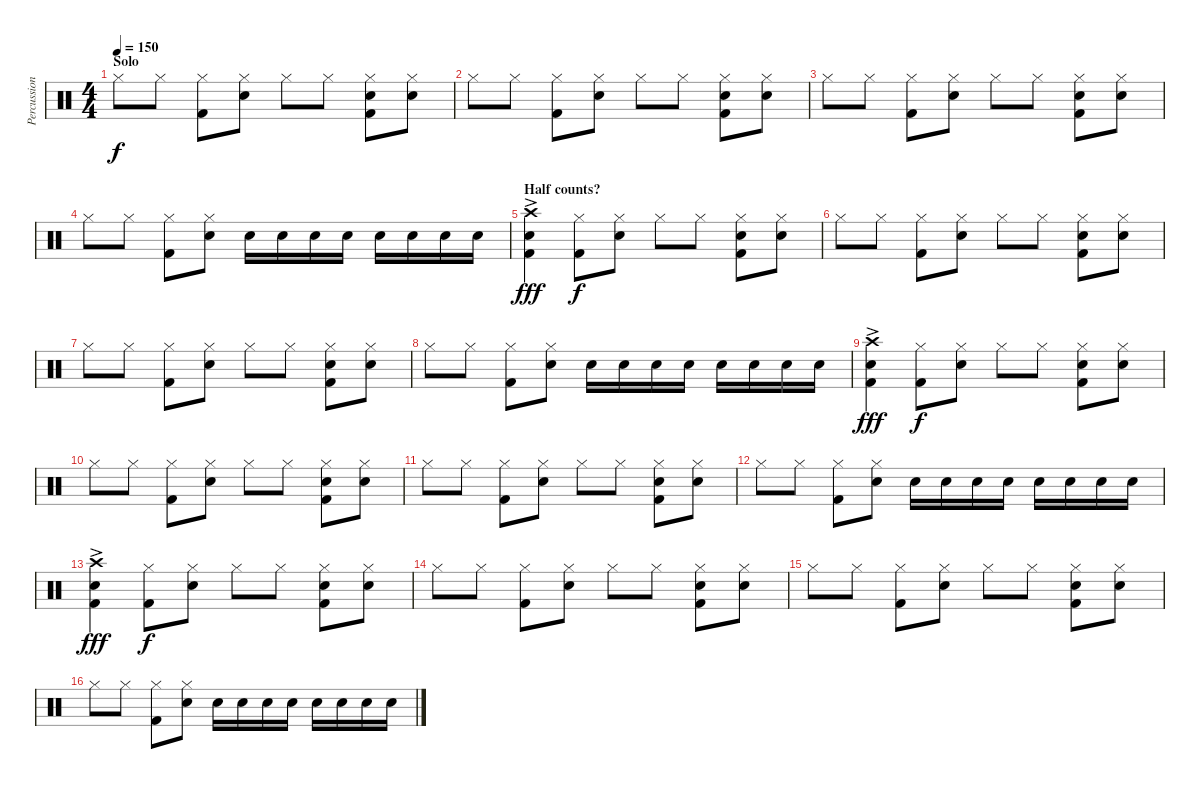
\track ("Percussion" "Percussion") {instrument percussion}
\staff {score}
\articulation defaults
\ts (4 4)
\section ("" "Solo")
\tempo 150
\clef neutral
\ks c "Hi-Hat (closed)".8{dy f} "Hi-Hat (closed)".8
("Hi-Hat (closed)" "Kick (hit) 2").8 ("Hi-Hat (closed)" "Electric Snare (hit)").8 "Hi-Hat (closed)".8 "Hi-Hat (closed)".8 ("Hi-Hat (closed)" "Electric Snare (hit)" "Kick (hit) 2").8 ("Hi-Hat (closed)" "Electric Snare (hit)").8 |
"Hi-Hat (closed)".8 "Hi-Hat (closed)".8 ("Hi-Hat (closed)" "Kick (hit) 2").8 ("Hi-Hat (closed)" "Electric Snare (hit)").8 "Hi-Hat (closed)".8 "Hi-Hat (closed)".8 ("Hi-Hat (closed)" "Electric Snare (hit)" "Kick (hit) 2").8 ("Hi-Hat (closed)" "Electric Snare (hit)").8 |
"Hi-Hat (closed)".8 "Hi-Hat (closed)".8 ("Hi-Hat (closed)" "Kick (hit) 2").8 ("Hi-Hat (closed)" "Electric Snare (hit)").8 "Hi-Hat (closed)".8 "Hi-Hat (closed)".8 ("Hi-Hat (closed)" "Electric Snare (hit)" "Kick (hit) 2").8 ("Hi-Hat (closed)" "Electric Snare (hit)").8 |
"Hi-Hat (closed)".8 "Hi-Hat (closed)".8 ("Hi-Hat (closed)" "Kick (hit) 2").8 ("Hi-Hat (closed)" "Electric Snare (hit)").8 "Electric Snare (hit)".16 "Electric Snare (hit)".16 "Electric Snare (hit)".16 "Electric Snare (hit)".16 "Electric Snare (hit)".16 "Electric Snare (hit)".16 "Electric Snare (hit)".16 "Electric Snare (hit)".16 |
\section ("" "Half counts?")
("Crash high (hit)"{ac} "Kick (hit) 2"{ac} "Electric Snare (hit)"{ac}).4{dy fff} ("Hi-Hat (closed)" "Kick (hit) 2").8{dy f} ("Hi-Hat (closed)" "Electric Snare (hit)").8 "Hi-Hat (closed)".8 "Hi-Hat (closed)".8 ("Hi-Hat (closed)" "Electric Snare (hit)" "Kick (hit) 2").8 ("Hi-Hat (closed)" "Electric Snare (hit)").8 |
"Hi-Hat (closed)".8 "Hi-Hat (closed)".8 ("Hi-Hat (closed)" "Kick (hit) 2").8 ("Hi-Hat (closed)" "Electric Snare (hit)").8 "Hi-Hat (closed)".8 "Hi-Hat (closed)".8 ("Hi-Hat (closed)" "Electric Snare (hit)" "Kick (hit) 2").8 ("Hi-Hat (closed)" "Electric Snare (hit)").8 |
"Hi-Hat (closed)".8 "Hi-Hat (closed)".8 ("Hi-Hat (closed)" "Kick (hit) 2").8 ("Hi-Hat (closed)" "Electric Snare (hit)").8 "Hi-Hat (closed)".8 "Hi-Hat (closed)".8 ("Hi-Hat (closed)" "Electric Snare (hit)" "Kick (hit) 2").8 ("Hi-Hat (closed)" "Electric Snare (hit)").8 |
"Hi-Hat (closed)".8 "Hi-Hat (closed)".8 ("Hi-Hat (closed)" "Kick (hit) 2").8 ("Hi-Hat (closed)" "Electric Snare (hit)").8 "Electric Snare (hit)".16 "Electric Snare (hit)".16 "Electric Snare (hit)".16 "Electric Snare (hit)".16 "Electric Snare (hit)".16 "Electric Snare (hit)".16 "Electric Snare (hit)".16 "Electric Snare (hit)".16 |
("Crash high (hit)"{ac} "Kick (hit) 2"{ac} "Electric Snare (hit)"{ac}).4{dy fff} ("Hi-Hat (closed)" "Kick (hit) 2").8{dy f} ("Hi-Hat (closed)" "Electric Snare (hit)").8 "Hi-Hat (closed)".8 "Hi-Hat (closed)".8 ("Hi-Hat (closed)" "Electric Snare (hit)" "Kick (hit) 2").8 ("Hi-Hat (closed)" "Electric Snare (hit)").8 |
"Hi-Hat (closed)".8 "Hi-Hat (closed)".8 ("Hi-Hat (closed)" "Kick (hit) 2").8 ("Hi-Hat (closed)" "Electric Snare (hit)").8 "Hi-Hat (closed)".8 "Hi-Hat (closed)".8 ("Hi-Hat (closed)" "Electric Snare (hit)" "Kick (hit) 2").8 ("Hi-Hat (closed)" "Electric Snare (hit)").8 |
"Hi-Hat (closed)".8 "Hi-Hat (closed)".8 ("Hi-Hat (closed)" "Kick (hit) 2").8 ("Hi-Hat (closed)" "Electric Snare (hit)").8 "Hi-Hat (closed)".8 "Hi-Hat (closed)".8 ("Hi-Hat (closed)" "Electric Snare (hit)" "Kick (hit) 2").8 ("Hi-Hat (closed)" "Electric Snare (hit)").8 |
"Hi-Hat (closed)".8 "Hi-Hat (closed)".8 ("Hi-Hat (closed)" "Kick (hit) 2").8 ("Hi-Hat (closed)" "Electric Snare (hit)").8 "Electric Snare (hit)".16 "Electric Snare (hit)".16 "Electric Snare (hit)".16 "Electric Snare (hit)".16 "Electric Snare (hit)".16 "Electric Snare (hit)".16 "Electric Snare (hit)".16 "Electric Snare (hit)".16 |
("Crash high (hit)"{ac} "Kick (hit) 2"{ac} "Electric Snare (hit)"{ac}).4{dy fff} ("Hi-Hat (closed)" "Kick (hit) 2").8{dy f} ("Hi-Hat (closed)" "Electric Snare (hit)").8 "Hi-Hat (closed)".8 "Hi-Hat (closed)".8 ("Hi-Hat (closed)" "Electric Snare (hit)" "Kick (hit) 2").8 ("Hi-Hat (closed)" "Electric Snare (hit)").8 |
"Hi-Hat (closed)".8 "Hi-Hat (closed)".8 ("Hi-Hat (closed)" "Kick (hit) 2").8 ("Hi-Hat (closed)" "Electric Snare (hit)").8 "Hi-Hat (closed)".8 "Hi-Hat (closed)".8 ("Hi-Hat (closed)" "Electric Snare (hit)" "Kick (hit) 2").8 ("Hi-Hat (closed)" "Electric Snare (hit)").8 |
"Hi-Hat (closed)".8 "Hi-Hat (closed)".8 ("Hi-Hat (closed)" "Kick (hit) 2").8 ("Hi-Hat (closed)" "Electric Snare (hit)").8 "Hi-Hat (closed)".8 "Hi-Hat (closed)".8 ("Hi-Hat (closed)" "Electric Snare (hit)" "Kick (hit) 2").8 ("Hi-Hat (closed)" "Electric Snare (hit)").8 |
"Hi-Hat (closed)".8 "Hi-Hat (closed)".8 ("Hi-Hat (closed)" "Kick (hit) 2").8 ("Hi-Hat (closed)" "Electric Snare (hit)").8 "Electric Snare (hit)".16 "Electric Snare (hit)".16 "Electric Snare (hit)".16 "Electric Snare (hit)".16 "Electric Snare (hit)".16 "Electric Snare (hit)".16 "Electric Snare (hit)".16 "Electric Snare (hit)".16
